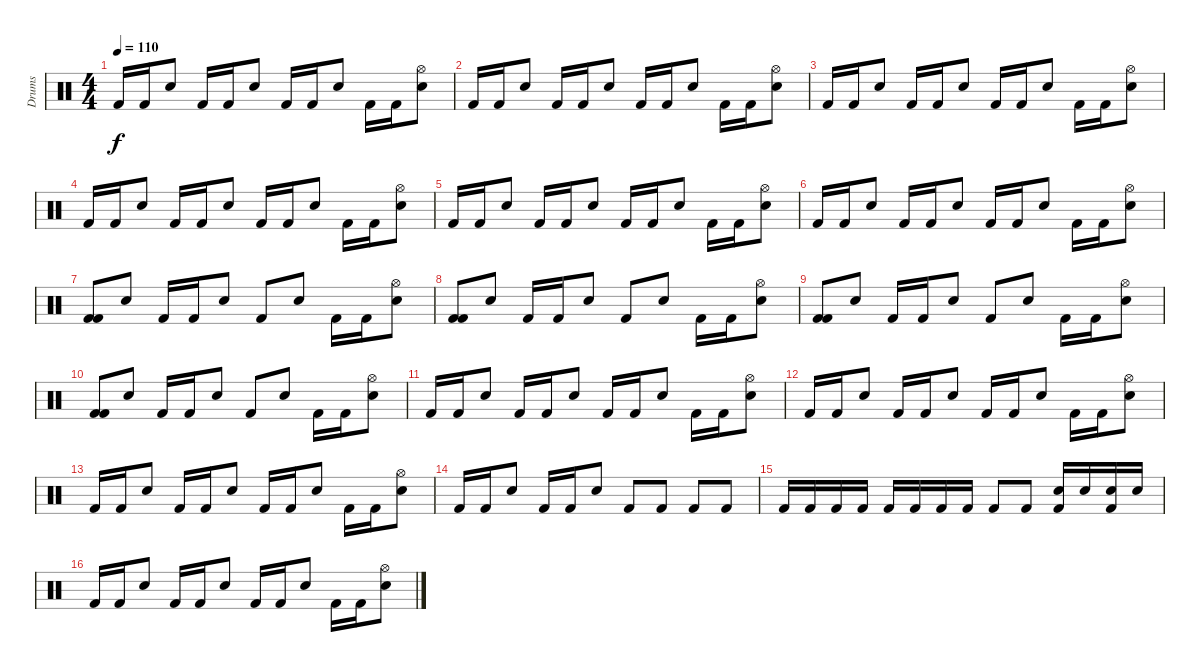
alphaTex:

\track ("Drums" "Drums") {instrument percussion}
\staff {score}
\articulation defaults
\ts (4 4)
\tempo 110
\clef neutral
\ks c "Kick (hit) 2".16{dy f} "Kick (hit) 2".16 "Snare (hit) 2".8 "Kick (hit) 2".16 "Kick (hit) 2".16 "Snare (hit) 2".8 "Kick (hit) 2".16 "Kick (hit) 2".16 "Snare (hit) 2".8 "Kick (hit) 2".16 "Kick (hit) 2".16
("Snare (hit) 2" "Hi-Hat (open)").8 |
"Kick (hit) 2".16 "Kick (hit) 2".16 "Snare (hit) 2".8 "Kick (hit) 2".16 "Kick (hit) 2".16 "Snare (hit) 2".8 "Kick (hit) 2".16 "Kick (hit) 2".16 "Snare (hit) 2".8 "Kick (hit) 2".16 "Kick (hit) 2".16 ("Snare (hit) 2" "Hi-Hat (open)").8 |
"Kick (hit) 2".16 "Kick (hit) 2".16 "Snare (hit) 2".8 "Kick (hit) 2".16 "Kick (hit) 2".16 "Snare (hit) 2".8 "Kick (hit) 2".16 "Kick (hit) 2".16 "Snare (hit) 2".8 "Kick (hit) 2".16 "Kick (hit) 2".16 ("Snare (hit) 2" "Hi-Hat (open)").8 |
"Kick (hit) 2".16 "Kick (hit) 2".16 "Snare (hit) 2".8 "Kick (hit) 2".16 "Kick (hit) 2".16 "Snare (hit) 2".8 "Kick (hit) 2".16 "Kick (hit) 2".16 "Snare (hit) 2".8 "Kick (hit) 2".16 "Kick (hit) 2".16 ("Snare (hit) 2" "Hi-Hat (open)").8 |
"Kick (hit) 2".16 "Kick (hit) 2".16 "Snare (hit) 2".8 "Kick (hit) 2".16 "Kick (hit) 2".16 "Snare (hit) 2".8 "Kick (hit) 2".16 "Kick (hit) 2".16 "Snare (hit) 2".8 "Kick (hit) 2".16 "Kick (hit) 2".16 ("Snare (hit) 2" "Hi-Hat (open)").8 |
"Kick (hit) 2".16 "Kick (hit) 2".16 "Snare (hit) 2".8 "Kick (hit) 2".16 "Kick (hit) 2".16 "Snare (hit) 2".8 "Kick (hit) 2".16 "Kick (hit) 2".16 "Snare (hit) 2".8 "Kick (hit) 2".16 "Kick (hit) 2".16 ("Snare (hit) 2" "Hi-Hat (open)").8 |
("Kick (hit) 2" "Kick (hit) 2").8 "Snare (hit) 2".8 "Kick (hit) 2".16 "Kick (hit) 2".16 "Snare (hit) 2".8 "Kick (hit) 2".8 "Snare (hit) 2".8 "Kick (hit) 2".16 "Kick (hit) 2".16 ("Snare (hit) 2" "Hi-Hat (open)").8 |
("Kick (hit) 2" "Kick (hit) 2").8 "Snare (hit) 2".8 "Kick (hit) 2".16 "Kick (hit) 2".16 "Snare (hit) 2".8 "Kick (hit) 2".8 "Snare (hit) 2".8 "Kick (hit) 2".16 "Kick (hit) 2".16 ("Snare (hit) 2" "Hi-Hat (open)").8 |
("Kick (hit) 2" "Kick (hit) 2").8 "Snare (hit) 2".8 "Kick (hit) 2".16 "Kick (hit) 2".16 "Snare (hit) 2".8 "Kick (hit) 2".8 "Snare (hit) 2".8 "Kick (hit) 2".16 "Kick (hit) 2".16 ("Snare (hit) 2" "Hi-Hat (open)").8 |
("Kick (hit) 2" "Kick (hit) 2").8 "Snare (hit) 2".8 "Kick (hit) 2".16 "Kick (hit) 2".16 "Snare (hit) 2".8 "Kick (hit) 2".8 "Snare (hit) 2".8 "Kick (hit) 2".16 "Kick (hit) 2".16 ("Snare (hit) 2" "Hi-Hat (open)").8 |
"Kick (hit) 2".16 "Kick (hit) 2".16 "Snare (hit) 2".8 "Kick (hit) 2".16 "Kick (hit) 2".16 "Snare (hit) 2".8 "Kick (hit) 2".16 "Kick (hit) 2".16 "Snare (hit) 2".8 "Kick (hit) 2".16 "Kick (hit) 2".16 ("Snare (hit) 2" "Hi-Hat (open)").8 |
"Kick (hit) 2".16 "Kick (hit) 2".16 "Snare (hit) 2".8 "Kick (hit) 2".16 "Kick (hit) 2".16 "Snare (hit) 2".8 "Kick (hit) 2".16 "Kick (hit) 2".16 "Snare (hit) 2".8 "Kick (hit) 2".16 "Kick (hit) 2".16 ("Snare (hit) 2" "Hi-Hat (open)").8 |
"Kick (hit) 2".16 "Kick (hit) 2".16 "Snare (hit) 2".8 "Kick (hit) 2".16 "Kick (hit) 2".16 "Snare (hit) 2".8 "Kick (hit) 2".16 "Kick (hit) 2".16 "Snare (hit) 2".8 "Kick (hit) 2".16 "Kick (hit) 2".16 ("Snare (hit) 2" "Hi-Hat (open)").8 |
"Kick (hit) 2".16 "Kick (hit) 2".16 "Snare (hit) 2".8 "Kick (hit) 2".16 "Kick (hit) 2".16 "Snare (hit) 2".8 "Kick (hit) 2".8 "Kick (hit) 2".8 "Kick (hit) 2".8 "Kick (hit) 2".8 |
"Kick (hit) 2".16 "Kick (hit) 2".16 "Kick (hit) 2".16 "Kick (hit) 2".16 "Kick (hit) 2".16 "Kick (hit) 2".16 "Kick (hit) 2".16 "Kick (hit) 2".16 "Kick (hit) 2".8 "Kick (hit) 2".8 ("Kick (hit) 2" "Snare (hit) 2").16 "Snare (hit) 2".16 ("Kick (hit) 2" "Snare (hit) 2").16 "Snare (hit) 2".16 |
"Kick (hit) 2".16 "Kick (hit) 2".16 "Snare (hit) 2".8 "Kick (hit) 2".16 "Kick (hit) 2".16 "Snare (hit) 2".8 "Kick (hit) 2".16 "Kick (hit) 2".16 "Snare (hit) 2".8 "Kick (hit) 2".16 "Kick (hit) 2".16 ("Snare (hit) 2" "Hi-Hat (open)").8
